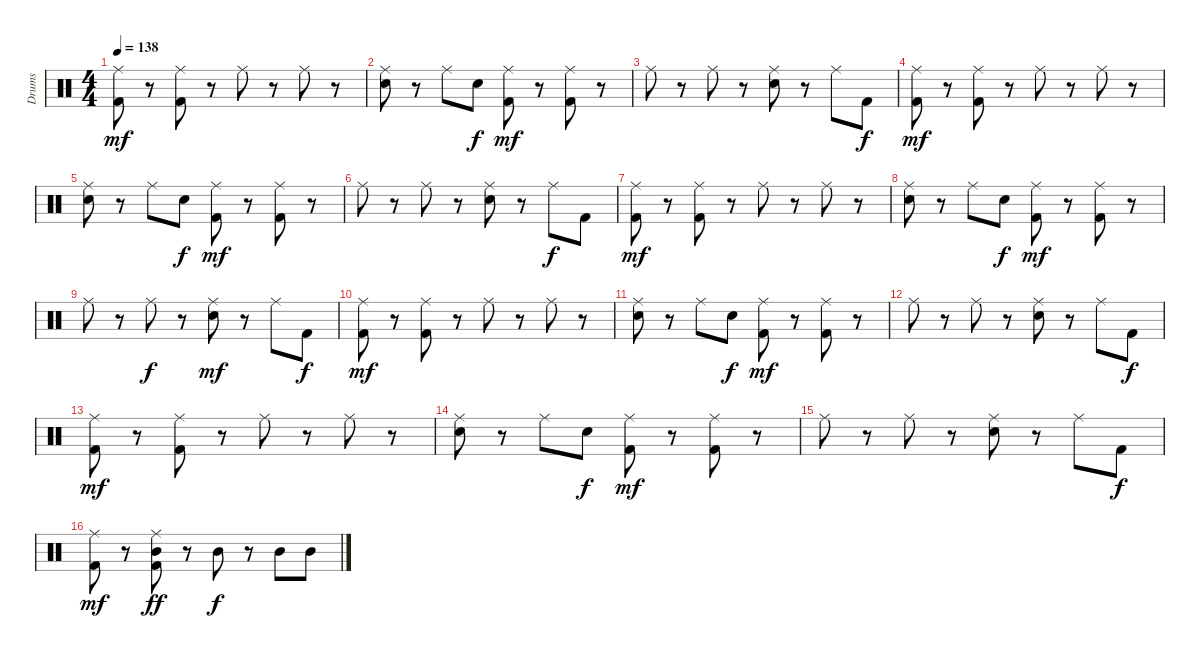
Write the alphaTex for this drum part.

\track ("Drums" "Drums") {instrument percussion}
\staff {score}
\articulation defaults
\ts (4 4)
\tempo 138
\clef neutral
\ks c
("Ride (middle)" "Kick (hit) 2").8{dy mf} r.8 ("Ride (middle)" "Kick (hit) 2").8 r.8 "Ride (middle)".8 r.8 "Ride (middle)".8 r.8 |
("Ride (middle)" "Snare (hit) 2").8 r.8 "Ride (middle)".8 "Snare (hit) 2".8{dy f} ("Ride (middle)" "Kick (hit) 2").8{dy mf} r.8 ("Ride (middle)" "Kick (hit) 2").8 r.8 |
"Ride (middle)".8 r.8 "Ride (middle)".8 r.8 ("Ride (middle)" "Snare (hit) 2").8 r.8 "Ride (middle)".8 "Kick (hit) 2".8{dy f} |
("Ride (middle)" "Kick (hit) 2").8{dy mf} r.8 ("Ride (middle)" "Kick (hit) 2").8 r.8 "Ride (middle)".8 r.8 "Ride (middle)".8 r.8 |
("Ride (middle)" "Snare (hit) 2").8 r.8 "Ride (middle)".8 "Snare (hit) 2".8{dy f} ("Ride (middle)" "Kick (hit) 2").8{dy mf} r.8 ("Ride (middle)" "Kick (hit) 2").8 r.8 |
"Ride (middle)".8 r.8 "Ride (middle)".8 r.8 ("Ride (middle)" "Snare (hit) 2").8 r.8 "Ride (middle)".8{dy f} "Kick (hit) 2".8 |
("Ride (middle)" "Kick (hit) 2").8{dy mf} r.8 ("Ride (middle)" "Kick (hit) 2").8 r.8 "Ride (middle)".8 r.8 "Ride (middle)".8 r.8 |
("Ride (middle)" "Snare (hit) 2").8 r.8 "Ride (middle)".8 "Snare (hit) 2".8{dy f} ("Ride (middle)" "Kick (hit) 2").8{dy mf} r.8 ("Ride (middle)" "Kick (hit) 2").8 r.8 |
"Ride (middle)".8 r.8 "Ride (middle)".8{dy f} r.8 ("Ride (middle)" "Snare (hit) 2").8{dy mf} r.8 "Ride (middle)".8 "Kick (hit) 2".8{dy f} |
("Ride (middle)" "Kick (hit) 2").8{dy mf} r.8 ("Ride (middle)" "Kick (hit) 2").8 r.8 "Ride (middle)".8 r.8 "Ride (middle)".8 r.8 |
("Ride (middle)" "Snare (hit) 2").8 r.8 "Ride (middle)".8 "Snare (hit) 2".8{dy f} ("Ride (middle)" "Kick (hit) 2").8{dy mf} r.8 ("Ride (middle)" "Kick (hit) 2").8 r.8 |
"Ride (middle)".8 r.8 "Ride (middle)".8 r.8 ("Ride (middle)" "Snare (hit) 2").8 r.8 "Ride (middle)".8 "Kick (hit) 2".8{dy f} |
("Ride (middle)" "Kick (hit) 2").8{dy mf} r.8 ("Ride (middle)" "Kick (hit) 2").8 r.8 "Ride (middle)".8 r.8 "Ride (middle)".8 r.8 |
("Ride (middle)" "Snare (hit) 2").8 r.8 "Ride (middle)".8 "Snare (hit) 2".8{dy f} ("Ride (middle)" "Kick (hit) 2").8{dy mf} r.8 ("Ride (middle)" "Kick (hit) 2").8 r.8 |
"Ride (middle)".8 r.8 "Ride (middle)".8 r.8 ("Ride (middle)" "Snare (hit) 2").8 r.8 "Ride (middle)".8 "Kick (hit) 2".8{dy f} |
("Ride (middle)" "Kick (hit) 2").8{dy mf} r.8 ("Ride (middle)" "Mid Tom (hit)" "Kick (hit) 2").8{dy ff} r.8 "Mid Tom (hit)".8{dy f} r.8 "Mid Tom (hit)".8 "Mid Tom (hit)".8
